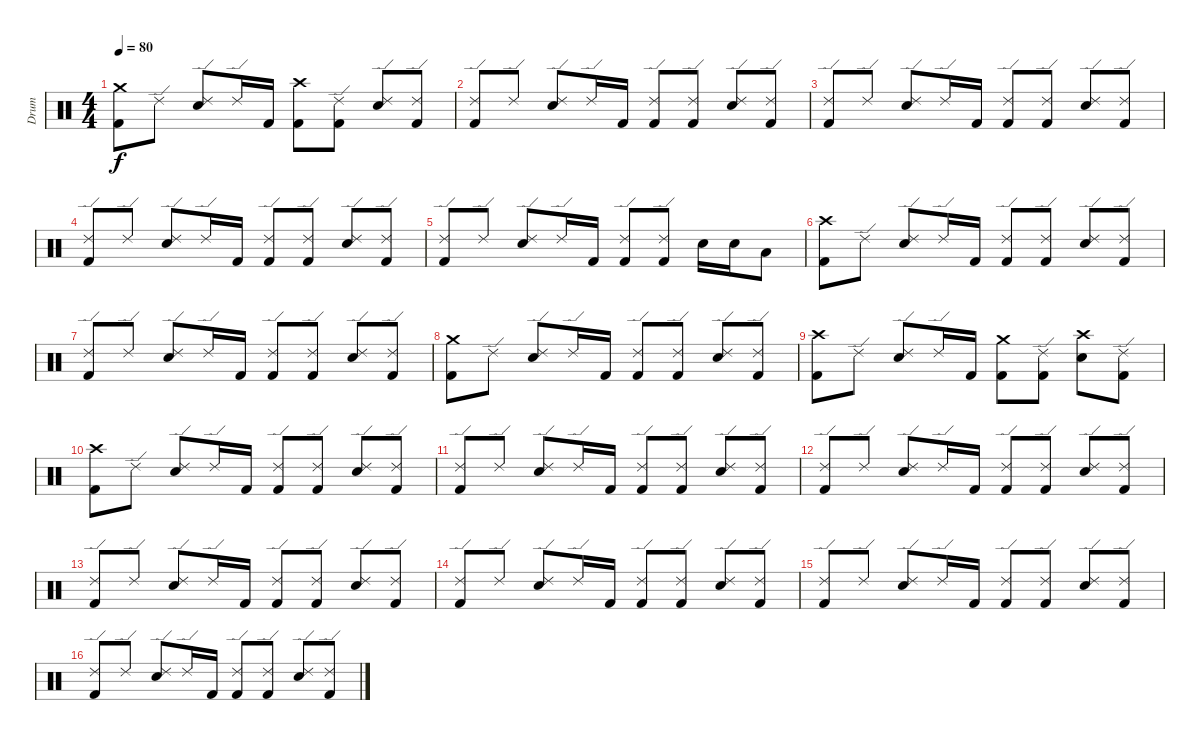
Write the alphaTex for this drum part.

\track ("Drum" "Drum") {instrument percussion}
\staff {score}
\articulation defaults
\ts (4 4)
\tempo 80
\clef neutral
\ks c
("Crash medium (hit)" "Kick (hit) 2").8{dy f} "Ride (edge) 2".8 ("Ride (edge) 2" "Electric Snare (hit)").8 "Ride (edge) 2".16 "Kick (hit) 2".16 ("Crash high (hit)" "Kick (hit) 2").8 ("Ride (edge) 2" "Kick (hit) 2").8 ("Ride (edge) 2" "Electric Snare (hit)").8 ("Ride (edge) 2" "Kick (hit) 2").8 |
("Ride (edge) 2" "Kick (hit) 2").8 "Ride (edge) 2".8 ("Ride (edge) 2" "Electric Snare (hit)").8 "Ride (edge) 2".16 "Kick (hit) 2".16 ("Ride (edge) 2" "Kick (hit) 2").8 ("Ride (edge) 2" "Kick (hit) 2").8 ("Ride (edge) 2" "Electric Snare (hit)").8 ("Ride (edge) 2" "Kick (hit) 2").8 |
("Ride (edge) 2" "Kick (hit) 2").8 "Ride (edge) 2".8 ("Ride (edge) 2" "Electric Snare (hit)").8 "Ride (edge) 2".16 "Kick (hit) 2".16 ("Ride (edge) 2" "Kick (hit) 2").8 ("Ride (edge) 2" "Kick (hit) 2").8 ("Ride (edge) 2" "Electric Snare (hit)").8 ("Ride (edge) 2" "Kick (hit) 2").8 |
("Ride (edge) 2" "Kick (hit) 2").8 "Ride (edge) 2".8 ("Ride (edge) 2" "Electric Snare (hit)").8 "Ride (edge) 2".16 "Kick (hit) 2".16 ("Ride (edge) 2" "Kick (hit) 2").8 ("Ride (edge) 2" "Kick (hit) 2").8 ("Ride (edge) 2" "Electric Snare (hit)").8 ("Ride (edge) 2" "Kick (hit) 2").8 |
("Ride (edge) 2" "Kick (hit) 2").8 "Ride (edge) 2".8 ("Ride (edge) 2" "Electric Snare (hit)").8 "Ride (edge) 2".16 "Kick (hit) 2".16 ("Ride (edge) 2" "Kick (hit) 2").8 ("Ride (edge) 2" "Kick (hit) 2").8 "Electric Snare (hit)".16 "Electric Snare (hit)".16 "Low Tom (hit)".8 |
("Crash high (hit)" "Kick (hit) 2").8 "Ride (edge) 2".8 ("Ride (edge) 2" "Electric Snare (hit)").8 "Ride (edge) 2".16 "Kick (hit) 2".16 ("Ride (edge) 2" "Kick (hit) 2").8 ("Ride (edge) 2" "Kick (hit) 2").8 ("Ride (edge) 2" "Electric Snare (hit)").8 ("Ride (edge) 2" "Kick (hit) 2").8 |
("Ride (edge) 2" "Kick (hit) 2").8 "Ride (edge) 2".8 ("Ride (edge) 2" "Electric Snare (hit)").8 "Ride (edge) 2".16 "Kick (hit) 2".16 ("Ride (edge) 2" "Kick (hit) 2").8 ("Ride (edge) 2" "Kick (hit) 2").8 ("Ride (edge) 2" "Electric Snare (hit)").8 ("Ride (edge) 2" "Kick (hit) 2").8 |
("Crash medium (hit)" "Kick (hit) 2").8 "Ride (edge) 2".8 ("Ride (edge) 2" "Electric Snare (hit)").8 "Ride (edge) 2".16 "Kick (hit) 2".16 ("Ride (edge) 2" "Kick (hit) 2").8 ("Ride (edge) 2" "Kick (hit) 2").8 ("Ride (edge) 2" "Electric Snare (hit)").8 ("Ride (edge) 2" "Kick (hit) 2").8 |
("Crash high (hit)" "Kick (hit) 2").8 "Ride (edge) 2".8 ("Ride (edge) 2" "Electric Snare (hit)").8 "Ride (edge) 2".16 "Kick (hit) 2".16 ("Crash medium (hit)" "Kick (hit) 2").8 ("Ride (edge) 2" "Kick (hit) 2").8 ("Crash high (hit)" "Electric Snare (hit)").8 ("Ride (edge) 2" "Kick (hit) 2").8 |
("Crash high (hit)" "Kick (hit) 2").8 "Ride (edge) 2".8 ("Ride (edge) 2" "Electric Snare (hit)").8 "Ride (edge) 2".16 "Kick (hit) 2".16 ("Ride (edge) 2" "Kick (hit) 2").8 ("Ride (edge) 2" "Kick (hit) 2").8 ("Ride (edge) 2" "Electric Snare (hit)").8 ("Ride (edge) 2" "Kick (hit) 2").8 |
("Ride (edge) 2" "Kick (hit) 2").8 "Ride (edge) 2".8 ("Ride (edge) 2" "Electric Snare (hit)").8 "Ride (edge) 2".16 "Kick (hit) 2".16 ("Ride (edge) 2" "Kick (hit) 2").8 ("Ride (edge) 2" "Kick (hit) 2").8 ("Ride (edge) 2" "Electric Snare (hit)").8 ("Ride (edge) 2" "Kick (hit) 2").8 |
("Ride (edge) 2" "Kick (hit) 2").8 "Ride (edge) 2".8 ("Ride (edge) 2" "Electric Snare (hit)").8 "Ride (edge) 2".16 "Kick (hit) 2".16 ("Ride (edge) 2" "Kick (hit) 2").8 ("Ride (edge) 2" "Kick (hit) 2").8 ("Ride (edge) 2" "Electric Snare (hit)").8 ("Ride (edge) 2" "Kick (hit) 2").8 |
("Ride (edge) 2" "Kick (hit) 2").8 "Ride (edge) 2".8 ("Ride (edge) 2" "Electric Snare (hit)").8 "Ride (edge) 2".16 "Kick (hit) 2".16 ("Ride (edge) 2" "Kick (hit) 2").8 ("Ride (edge) 2" "Kick (hit) 2").8 ("Ride (edge) 2" "Electric Snare (hit)").8 ("Ride (edge) 2" "Kick (hit) 2").8 |
("Ride (edge) 2" "Kick (hit) 2").8 "Ride (edge) 2".8 ("Ride (edge) 2" "Electric Snare (hit)").8 "Ride (edge) 2".16 "Kick (hit) 2".16 ("Ride (edge) 2" "Kick (hit) 2").8 ("Ride (edge) 2" "Kick (hit) 2").8 ("Ride (edge) 2" "Electric Snare (hit)").8 ("Ride (edge) 2" "Kick (hit) 2").8 |
("Ride (edge) 2" "Kick (hit) 2").8 "Ride (edge) 2".8 ("Ride (edge) 2" "Electric Snare (hit)").8 "Ride (edge) 2".16 "Kick (hit) 2".16 ("Ride (edge) 2" "Kick (hit) 2").8 ("Ride (edge) 2" "Kick (hit) 2").8 ("Ride (edge) 2" "Electric Snare (hit)").8 ("Ride (edge) 2" "Kick (hit) 2").8 |
("Ride (edge) 2" "Kick (hit) 2").8 "Ride (edge) 2".8 ("Ride (edge) 2" "Electric Snare (hit)").8 "Ride (edge) 2".16 "Kick (hit) 2".16 ("Ride (edge) 2" "Kick (hit) 2").8 ("Ride (edge) 2" "Kick (hit) 2").8 ("Ride (edge) 2" "Electric Snare (hit)").8 ("Ride (edge) 2" "Kick (hit) 2").8
